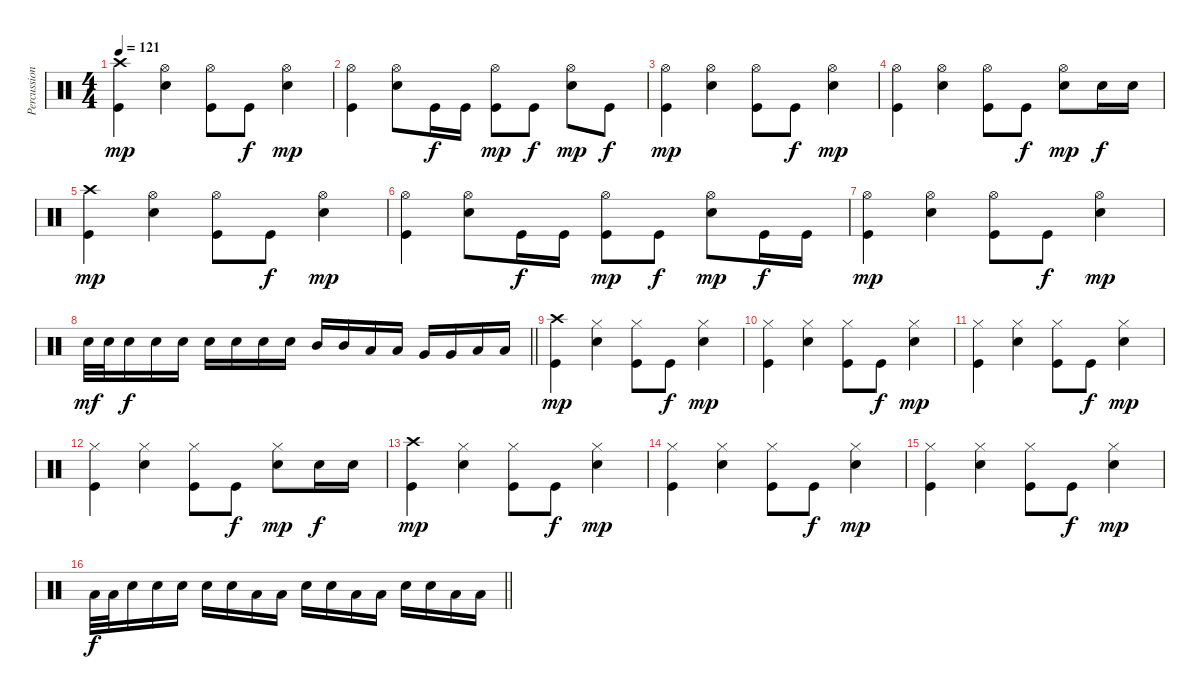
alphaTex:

\track ("Percussion" "Percussion") {instrument percussion}
\staff {score}
\articulation defaults
\ts (4 4)
\tempo 121
\clef neutral
\ks c
("Crash high (hit)" "Kick (hit)").4{dy mp} ("Hi-Hat (open)" "Electric Snare (hit)").4 ("Hi-Hat (open)" "Kick (hit)").8 "Kick (hit)".8{dy f} ("Hi-Hat (open)" "Electric Snare (hit)").4{dy mp} |
("Hi-Hat (open)" "Kick (hit)").4 ("Hi-Hat (open)" "Electric Snare (hit)").8 "Kick (hit)".16{dy f} "Kick (hit)".16 ("Hi-Hat (open)" "Kick (hit)").8{dy mp} "Kick (hit)".8{dy f} ("Hi-Hat (open)" "Electric Snare (hit)").8{dy mp} "Kick (hit)".8{dy f} |
("Hi-Hat (open)" "Kick (hit)").4{dy mp} ("Hi-Hat (open)" "Electric Snare (hit)").4 ("Hi-Hat (open)" "Kick (hit)").8 "Kick (hit)".8{dy f} ("Hi-Hat (open)" "Electric Snare (hit)").4{dy mp} |
("Hi-Hat (open)" "Kick (hit)").4 ("Hi-Hat (open)" "Electric Snare (hit)").4 ("Hi-Hat (open)" "Kick (hit)").8 "Kick (hit)".8{dy f} ("Hi-Hat (open)" "Electric Snare (hit)").8{dy mp} "Electric Snare (hit)".16{dy f} "Electric Snare (hit)".16 |
("Crash high (hit)" "Kick (hit)").4{dy mp} ("Hi-Hat (open)" "Electric Snare (hit)").4 ("Hi-Hat (open)" "Kick (hit)").8 "Kick (hit)".8{dy f} ("Hi-Hat (open)" "Electric Snare (hit)").4{dy mp} |
("Hi-Hat (open)" "Kick (hit)").4 ("Hi-Hat (open)" "Electric Snare (hit)").8 "Kick (hit)".16{dy f} "Kick (hit)".16 ("Hi-Hat (open)" "Kick (hit)").8{dy mp} "Kick (hit)".8{dy f} ("Hi-Hat (open)" "Electric Snare (hit)").8{dy mp} "Kick (hit)".16{dy f} "Kick (hit)".16 |
("Hi-Hat (open)" "Kick (hit)").4{dy mp} ("Hi-Hat (open)" "Electric Snare (hit)").4 ("Hi-Hat (open)" "Kick (hit)").8 "Kick (hit)".8{dy f} ("Hi-Hat (open)" "Electric Snare (hit)").4{dy mp} |
\barLineRight lightlight "Electric Snare (hit)".32{dy mf} "Electric Snare (hit)".32 "Electric Snare (hit)".16{dy f} "Electric Snare (hit)".16 "Electric Snare (hit)".16 "Electric Snare (hit)".16 "Electric Snare (hit)".16 "Electric Snare (hit)".16 "Electric Snare (hit)".16 "Mid Tom (hit)".16 "Mid Tom (hit)".16 "Low Tom (hit)".16 "Low Tom (hit)".16 "Very Low Tom (hit)".16 "Very Low Tom (hit)".16 "Low Floor Tom (hit)".16 "Low Floor Tom (hit)".16
|
\section ("" "")
("Crash high (hit)" "Kick (hit)").4{dy mp} ("Hi-Hat (closed)" "Electric Snare (hit)").4 ("Hi-Hat (closed)" "Kick (hit)").8 "Kick (hit)".8{dy f} ("Hi-Hat (closed)" "Electric Snare (hit)").4{dy mp} |
("Hi-Hat (closed)" "Kick (hit)").4 ("Hi-Hat (closed)" "Electric Snare (hit)").4 ("Hi-Hat (closed)" "Kick (hit)").8 "Kick (hit)".8{dy f} ("Hi-Hat (closed)" "Electric Snare (hit)").4{dy mp} |
("Hi-Hat (closed)" "Kick (hit)").4 ("Hi-Hat (closed)" "Electric Snare (hit)").4 ("Hi-Hat (closed)" "Kick (hit)").8 "Kick (hit)".8{dy f} ("Hi-Hat (closed)" "Electric Snare (hit)").4{dy mp} |
("Hi-Hat (closed)" "Kick (hit)").4 ("Hi-Hat (closed)" "Electric Snare (hit)").4 ("Hi-Hat (closed)" "Kick (hit)").8 "Kick (hit)".8{dy f} ("Hi-Hat (closed)" "Electric Snare (hit)").8{dy mp} "Electric Snare (hit)".16{dy f} "Electric Snare (hit)".16 |
("Crash high (hit)" "Kick (hit)").4{dy mp} ("Hi-Hat (closed)" "Electric Snare (hit)").4 ("Hi-Hat (closed)" "Kick (hit)").8 "Kick (hit)".8{dy f} ("Hi-Hat (closed)" "Electric Snare (hit)").4{dy mp} |
("Hi-Hat (closed)" "Kick (hit)").4 ("Hi-Hat (closed)" "Electric Snare (hit)").4 ("Hi-Hat (closed)" "Kick (hit)").8 "Kick (hit)".8{dy f} ("Hi-Hat (closed)" "Electric Snare (hit)").4{dy mp} |
("Hi-Hat (closed)" "Kick (hit)").4 ("Hi-Hat (closed)" "Electric Snare (hit)").4 ("Hi-Hat (closed)" "Kick (hit)").8 "Kick (hit)".8{dy f} ("Hi-Hat (closed)" "Electric Snare (hit)").4{dy mp} |
\barLineRight lightlight "Low Tom (hit)".32{dy f} "Low Tom (hit)".32 "Electric Snare (hit)".16 "Electric Snare (hit)".16 "Electric Snare (hit)".16 "Electric Snare (hit)".16 "Electric Snare (hit)".16 "Low Tom (hit)".16 "Low Tom (hit)".16 "Electric Snare (hit)".16 "Electric Snare (hit)".16 "Low Tom (hit)".16 "Low Tom (hit)".16 "Electric Snare (hit)".16 "Electric Snare (hit)".16 "Low Floor Tom (hit)".16 "Low Floor Tom (hit)".16
